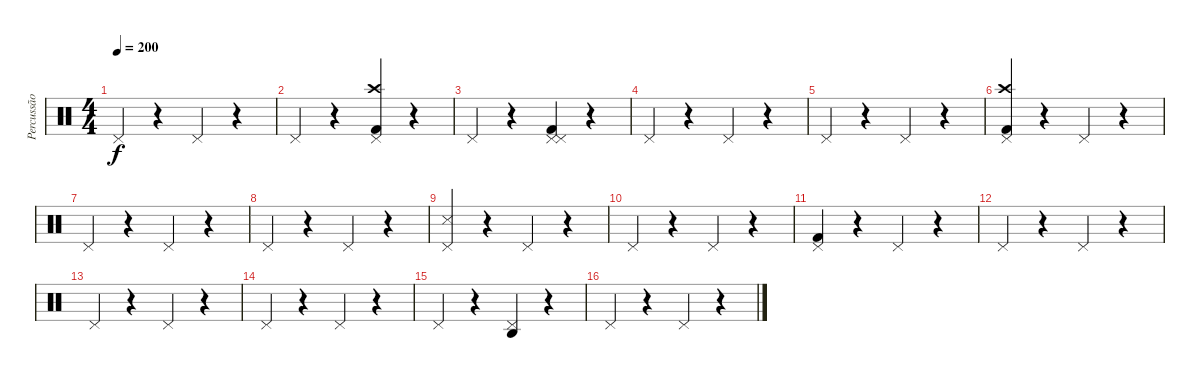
\track ("Percussão" "Percussão") {instrument percussion}
\staff {score}
\articulation defaults
\ts (4 4)
\tempo 200
\clef neutral
\ks c "Pedal Hi-Hat (hit)".4{dy f}
r.4 "Pedal Hi-Hat (hit)".4 r.4 |
"Pedal Hi-Hat (hit)".4 r.4 ("Pedal Hi-Hat (hit)" "Crash high (hit)" "Kick (hit) 2").4 r.4 |
"Pedal Hi-Hat (hit)".4 r.4 ("Pedal Hi-Hat (hit)" "Pedal Hi-Hat (hit)" "Kick (hit) 2").4 r.4 |
"Pedal Hi-Hat (hit)".4 r.4 "Pedal Hi-Hat (hit)".4 r.4 |
"Pedal Hi-Hat (hit)".4 r.4 "Pedal Hi-Hat (hit)".4 r.4 |
("Pedal Hi-Hat (hit)" "Crash high (hit)" "Kick (hit) 2").4 r.4 "Pedal Hi-Hat (hit)".4 r.4 |
"Pedal Hi-Hat (hit)".4 r.4 "Pedal Hi-Hat (hit)".4 r.4 |
"Pedal Hi-Hat (hit)".4 r.4 "Pedal Hi-Hat (hit)".4 r.4 |
("Pedal Hi-Hat (hit)" "Metronome (hit)").4 r.4 "Pedal Hi-Hat (hit)".4 r.4 |
"Pedal Hi-Hat (hit)".4 r.4 "Pedal Hi-Hat (hit)".4 r.4 |
("Pedal Hi-Hat (hit)" "Kick (hit) 2").4 r.4 "Pedal Hi-Hat (hit)".4 r.4 |
"Pedal Hi-Hat (hit)".4 r.4 "Pedal Hi-Hat (hit)".4 r.4 |
"Pedal Hi-Hat (hit)".4 r.4 "Pedal Hi-Hat (hit)".4 r.4 |
"Pedal Hi-Hat (hit)".4 r.4 "Pedal Hi-Hat (hit)".4 r.4 |
"Pedal Hi-Hat (hit)".4 r.4 ("Pedal Hi-Hat (hit)" "Agogo high (hit)").4 r.4 |
"Pedal Hi-Hat (hit)".4 r.4 "Pedal Hi-Hat (hit)".4 r.4
